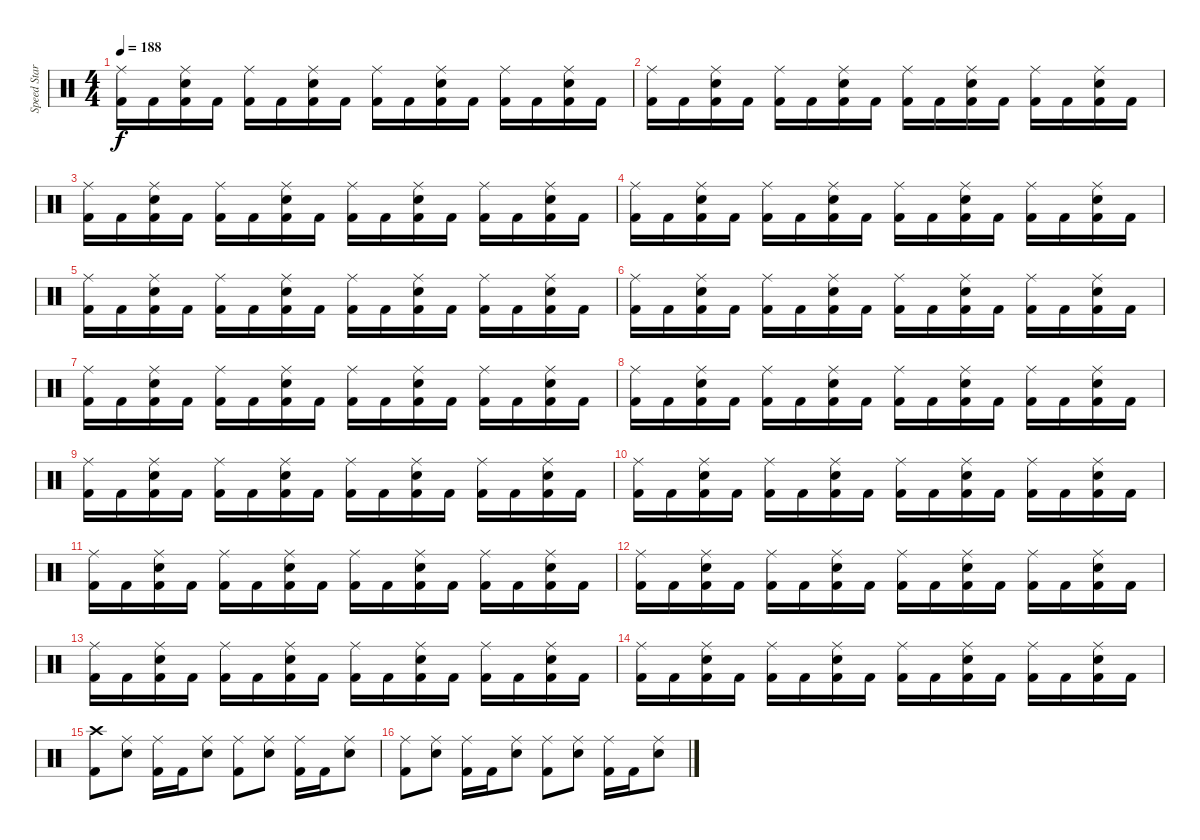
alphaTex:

\track ("Speed Star Sypan Joe" "Speed Star") {instrument percussion}
\staff {score}
\articulation defaults
\ts (4 4)
\tempo 188
\clef neutral
\ks c
("Kick (hit) 2" "Ride (middle)").16{dy f} "Kick (hit) 2".16 ("Kick (hit) 2" "Electric Snare (hit)" "Ride (middle)").16 "Kick (hit) 2".16 ("Kick (hit) 2" "Ride (middle)").16 "Kick (hit) 2".16 ("Kick (hit) 2" "Electric Snare (hit)" "Ride (middle)").16 "Kick (hit) 2".16 ("Kick (hit) 2" "Ride (middle)").16 "Kick (hit) 2".16 ("Kick (hit) 2" "Electric Snare (hit)" "Ride (middle)").16 "Kick (hit) 2".16 ("Kick (hit) 2" "Ride (middle)").16 "Kick (hit) 2".16 ("Kick (hit) 2" "Electric Snare (hit)" "Ride (middle)").16 "Kick (hit) 2".16 |
("Kick (hit) 2" "Ride (middle)").16 "Kick (hit) 2".16 ("Kick (hit) 2" "Electric Snare (hit)" "Ride (middle)").16 "Kick (hit) 2".16 ("Kick (hit) 2" "Ride (middle)").16 "Kick (hit) 2".16 ("Kick (hit) 2" "Electric Snare (hit)" "Ride (middle)").16 "Kick (hit) 2".16 ("Kick (hit) 2" "Ride (middle)").16 "Kick (hit) 2".16 ("Kick (hit) 2" "Electric Snare (hit)" "Ride (middle)").16 "Kick (hit) 2".16 ("Kick (hit) 2" "Ride (middle)").16 "Kick (hit) 2".16 ("Kick (hit) 2" "Electric Snare (hit)" "Ride (middle)").16 "Kick (hit) 2".16 |
("Kick (hit) 2" "Ride (middle)").16 "Kick (hit) 2".16 ("Kick (hit) 2" "Electric Snare (hit)" "Ride (middle)").16 "Kick (hit) 2".16 ("Kick (hit) 2" "Ride (middle)").16 "Kick (hit) 2".16 ("Kick (hit) 2" "Electric Snare (hit)" "Ride (middle)").16 "Kick (hit) 2".16 ("Kick (hit) 2" "Ride (middle)").16 "Kick (hit) 2".16 ("Kick (hit) 2" "Electric Snare (hit)" "Ride (middle)").16 "Kick (hit) 2".16 ("Kick (hit) 2" "Ride (middle)").16 "Kick (hit) 2".16 ("Kick (hit) 2" "Electric Snare (hit)" "Ride (middle)").16 "Kick (hit) 2".16 |
("Kick (hit) 2" "Ride (middle)").16 "Kick (hit) 2".16 ("Kick (hit) 2" "Electric Snare (hit)" "Ride (middle)").16 "Kick (hit) 2".16 ("Kick (hit) 2" "Ride (middle)").16 "Kick (hit) 2".16 ("Kick (hit) 2" "Electric Snare (hit)" "Ride (middle)").16 "Kick (hit) 2".16 ("Kick (hit) 2" "Ride (middle)").16 "Kick (hit) 2".16 ("Kick (hit) 2" "Electric Snare (hit)" "Ride (middle)").16 "Kick (hit) 2".16 ("Kick (hit) 2" "Ride (middle)").16 "Kick (hit) 2".16 ("Kick (hit) 2" "Electric Snare (hit)" "Ride (middle)").16 "Kick (hit) 2".16 |
("Kick (hit) 2" "Ride (middle)").16 "Kick (hit) 2".16 ("Kick (hit) 2" "Electric Snare (hit)" "Ride (middle)").16 "Kick (hit) 2".16 ("Kick (hit) 2" "Ride (middle)").16 "Kick (hit) 2".16 ("Kick (hit) 2" "Electric Snare (hit)" "Ride (middle)").16 "Kick (hit) 2".16 ("Kick (hit) 2" "Ride (middle)").16 "Kick (hit) 2".16 ("Kick (hit) 2" "Electric Snare (hit)" "Ride (middle)").16 "Kick (hit) 2".16 ("Kick (hit) 2" "Ride (middle)").16 "Kick (hit) 2".16 ("Kick (hit) 2" "Electric Snare (hit)" "Ride (middle)").16 "Kick (hit) 2".16 |
("Kick (hit) 2" "Ride (middle)").16 "Kick (hit) 2".16 ("Kick (hit) 2" "Electric Snare (hit)" "Ride (middle)").16 "Kick (hit) 2".16 ("Kick (hit) 2" "Ride (middle)").16 "Kick (hit) 2".16 ("Kick (hit) 2" "Electric Snare (hit)" "Ride (middle)").16 "Kick (hit) 2".16 ("Kick (hit) 2" "Ride (middle)").16 "Kick (hit) 2".16 ("Kick (hit) 2" "Electric Snare (hit)" "Ride (middle)").16 "Kick (hit) 2".16 ("Kick (hit) 2" "Ride (middle)").16 "Kick (hit) 2".16 ("Kick (hit) 2" "Electric Snare (hit)" "Ride (middle)").16 "Kick (hit) 2".16 |
("Kick (hit) 2" "Ride (middle)").16 "Kick (hit) 2".16 ("Kick (hit) 2" "Electric Snare (hit)" "Ride (middle)").16 "Kick (hit) 2".16 ("Kick (hit) 2" "Ride (middle)").16 "Kick (hit) 2".16 ("Kick (hit) 2" "Electric Snare (hit)" "Ride (middle)").16 "Kick (hit) 2".16 ("Kick (hit) 2" "Ride (middle)").16 "Kick (hit) 2".16 ("Kick (hit) 2" "Electric Snare (hit)" "Ride (middle)").16 "Kick (hit) 2".16 ("Kick (hit) 2" "Ride (middle)").16 "Kick (hit) 2".16 ("Kick (hit) 2" "Electric Snare (hit)" "Ride (middle)").16 "Kick (hit) 2".16 |
("Kick (hit) 2" "Ride (middle)").16 "Kick (hit) 2".16 ("Kick (hit) 2" "Electric Snare (hit)" "Ride (middle)").16 "Kick (hit) 2".16 ("Kick (hit) 2" "Ride (middle)").16 "Kick (hit) 2".16 ("Kick (hit) 2" "Electric Snare (hit)" "Ride (middle)").16 "Kick (hit) 2".16 ("Kick (hit) 2" "Ride (middle)").16 "Kick (hit) 2".16 ("Kick (hit) 2" "Electric Snare (hit)" "Ride (middle)").16 "Kick (hit) 2".16 ("Kick (hit) 2" "Ride (middle)").16 "Kick (hit) 2".16 ("Kick (hit) 2" "Electric Snare (hit)" "Ride (middle)").16 "Kick (hit) 2".16 |
("Kick (hit) 2" "Ride (middle)").16 "Kick (hit) 2".16 ("Kick (hit) 2" "Electric Snare (hit)" "Ride (middle)").16 "Kick (hit) 2".16 ("Kick (hit) 2" "Ride (middle)").16 "Kick (hit) 2".16 ("Kick (hit) 2" "Electric Snare (hit)" "Ride (middle)").16 "Kick (hit) 2".16 ("Kick (hit) 2" "Ride (middle)").16 "Kick (hit) 2".16 ("Kick (hit) 2" "Electric Snare (hit)" "Ride (middle)").16 "Kick (hit) 2".16 ("Kick (hit) 2" "Ride (middle)").16 "Kick (hit) 2".16 ("Kick (hit) 2" "Electric Snare (hit)" "Ride (middle)").16 "Kick (hit) 2".16 |
("Kick (hit) 2" "Ride (middle)").16 "Kick (hit) 2".16 ("Kick (hit) 2" "Electric Snare (hit)" "Ride (middle)").16 "Kick (hit) 2".16 ("Kick (hit) 2" "Ride (middle)").16 "Kick (hit) 2".16 ("Kick (hit) 2" "Electric Snare (hit)" "Ride (middle)").16 "Kick (hit) 2".16 ("Kick (hit) 2" "Ride (middle)").16 "Kick (hit) 2".16 ("Kick (hit) 2" "Electric Snare (hit)" "Ride (middle)").16 "Kick (hit) 2".16 ("Kick (hit) 2" "Ride (middle)").16 "Kick (hit) 2".16 ("Kick (hit) 2" "Electric Snare (hit)" "Ride (middle)").16 "Kick (hit) 2".16 |
("Kick (hit) 2" "Ride (middle)").16 "Kick (hit) 2".16 ("Kick (hit) 2" "Electric Snare (hit)" "Ride (middle)").16 "Kick (hit) 2".16 ("Kick (hit) 2" "Ride (middle)").16 "Kick (hit) 2".16 ("Kick (hit) 2" "Electric Snare (hit)" "Ride (middle)").16 "Kick (hit) 2".16 ("Kick (hit) 2" "Ride (middle)").16 "Kick (hit) 2".16 ("Kick (hit) 2" "Electric Snare (hit)" "Ride (middle)").16 "Kick (hit) 2".16 ("Kick (hit) 2" "Ride (middle)").16 "Kick (hit) 2".16 ("Kick (hit) 2" "Electric Snare (hit)" "Ride (middle)").16 "Kick (hit) 2".16 |
("Kick (hit) 2" "Ride (middle)").16 "Kick (hit) 2".16 ("Kick (hit) 2" "Electric Snare (hit)" "Ride (middle)").16 "Kick (hit) 2".16 ("Kick (hit) 2" "Ride (middle)").16 "Kick (hit) 2".16 ("Kick (hit) 2" "Electric Snare (hit)" "Ride (middle)").16 "Kick (hit) 2".16 ("Kick (hit) 2" "Ride (middle)").16 "Kick (hit) 2".16 ("Kick (hit) 2" "Electric Snare (hit)" "Ride (middle)").16 "Kick (hit) 2".16 ("Kick (hit) 2" "Ride (middle)").16 "Kick (hit) 2".16 ("Kick (hit) 2" "Electric Snare (hit)" "Ride (middle)").16 "Kick (hit) 2".16 |
("Kick (hit) 2" "Ride (middle)").16 "Kick (hit) 2".16 ("Kick (hit) 2" "Electric Snare (hit)" "Ride (middle)").16 "Kick (hit) 2".16 ("Kick (hit) 2" "Ride (middle)").16 "Kick (hit) 2".16 ("Kick (hit) 2" "Electric Snare (hit)" "Ride (middle)").16 "Kick (hit) 2".16 ("Kick (hit) 2" "Ride (middle)").16 "Kick (hit) 2".16 ("Kick (hit) 2" "Electric Snare (hit)" "Ride (middle)").16 "Kick (hit) 2".16 ("Kick (hit) 2" "Ride (middle)").16 "Kick (hit) 2".16 ("Kick (hit) 2" "Electric Snare (hit)" "Ride (middle)").16 "Kick (hit) 2".16 |
("Kick (hit) 2" "Ride (middle)").16 "Kick (hit) 2".16 ("Kick (hit) 2" "Electric Snare (hit)" "Ride (middle)").16 "Kick (hit) 2".16 ("Kick (hit) 2" "Ride (middle)").16 "Kick (hit) 2".16 ("Kick (hit) 2" "Electric Snare (hit)" "Ride (middle)").16 "Kick (hit) 2".16 ("Kick (hit) 2" "Ride (middle)").16 "Kick (hit) 2".16 ("Kick (hit) 2" "Electric Snare (hit)" "Ride (middle)").16 "Kick (hit) 2".16 ("Kick (hit) 2" "Ride (middle)").16 "Kick (hit) 2".16 ("Kick (hit) 2" "Electric Snare (hit)" "Ride (middle)").16 "Kick (hit) 2".16 |
("Kick (hit) 2" "Crash high (hit)").8 ("Electric Snare (hit)" "Ride (middle)").8 ("Kick (hit) 2" "Ride (middle)").16 "Kick (hit) 2".16 ("Electric Snare (hit)" "Ride (middle)").8 ("Kick (hit) 2" "Ride (middle)").8 ("Electric Snare (hit)" "Ride (middle)").8 ("Kick (hit) 2" "Ride (middle)").16 "Kick (hit) 2".16 ("Electric Snare (hit)" "Ride (middle)").8 |
("Kick (hit) 2" "Ride (middle)").8 ("Electric Snare (hit)" "Ride (middle)").8 ("Kick (hit) 2" "Ride (middle)").16 "Kick (hit) 2".16 ("Electric Snare (hit)" "Ride (middle)").8 ("Kick (hit) 2" "Ride (middle)").8 ("Electric Snare (hit)" "Ride (middle)").8 ("Kick (hit) 2" "Ride (middle)").16 "Kick (hit) 2".16 ("Electric Snare (hit)" "Ride (middle)").8
